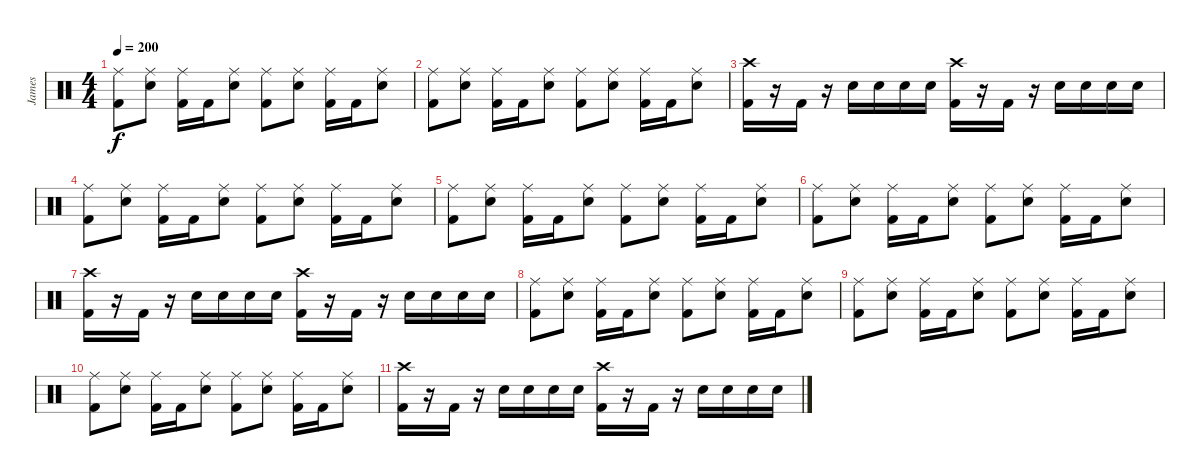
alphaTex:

\track ("James" "James") {instrument percussion}
\staff {score}
\articulation defaults
\ts (4 4)
\tempo 200
\clef neutral
\ks c
("Kick (hit) 2" "Ride (middle)").8{dy f} ("Electric Snare (hit)" "Ride (middle)").8 ("Kick (hit) 2" "Ride (middle)").16 "Kick (hit) 2".16 ("Electric Snare (hit)" "Ride (middle)").8 ("Kick (hit) 2" "Ride (middle)").8 ("Electric Snare (hit)" "Ride (middle)").8 ("Kick (hit) 2" "Ride (middle)").16 "Kick (hit) 2".16 ("Electric Snare (hit)" "Ride (middle)").8 |
("Kick (hit) 2" "Ride (middle)").8 ("Electric Snare (hit)" "Ride (middle)").8 ("Kick (hit) 2" "Ride (middle)").16 "Kick (hit) 2".16 ("Electric Snare (hit)" "Ride (middle)").8 ("Kick (hit) 2" "Ride (middle)").8 ("Electric Snare (hit)" "Ride (middle)").8 ("Kick (hit) 2" "Ride (middle)").16 "Kick (hit) 2".16 ("Electric Snare (hit)" "Ride (middle)").8 |
("Kick (hit) 2" "Crash high (hit)").16 r.16 "Kick (hit) 2".16 r.16 "Electric Snare (hit)".16 "Electric Snare (hit)".16 "Electric Snare (hit)".16 "Electric Snare (hit)".16 ("Kick (hit) 2" "Crash high (hit)").16 r.16 "Kick (hit) 2".16 r.16 "Electric Snare (hit)".16 "Electric Snare (hit)".16 "Electric Snare (hit)".16 "Electric Snare (hit)".16 |
("Kick (hit) 2" "Ride (middle)").8 ("Electric Snare (hit)" "Ride (middle)").8 ("Kick (hit) 2" "Ride (middle)").16 "Kick (hit) 2".16 ("Electric Snare (hit)" "Ride (middle)").8 ("Kick (hit) 2" "Ride (middle)").8 ("Electric Snare (hit)" "Ride (middle)").8 ("Kick (hit) 2" "Ride (middle)").16 "Kick (hit) 2".16 ("Electric Snare (hit)" "Ride (middle)").8 |
("Kick (hit) 2" "Ride (middle)").8 ("Electric Snare (hit)" "Ride (middle)").8 ("Kick (hit) 2" "Ride (middle)").16 "Kick (hit) 2".16 ("Electric Snare (hit)" "Ride (middle)").8 ("Kick (hit) 2" "Ride (middle)").8 ("Electric Snare (hit)" "Ride (middle)").8 ("Kick (hit) 2" "Ride (middle)").16 "Kick (hit) 2".16 ("Electric Snare (hit)" "Ride (middle)").8 |
("Kick (hit) 2" "Ride (middle)").8 ("Electric Snare (hit)" "Ride (middle)").8 ("Kick (hit) 2" "Ride (middle)").16 "Kick (hit) 2".16 ("Electric Snare (hit)" "Ride (middle)").8 ("Kick (hit) 2" "Ride (middle)").8 ("Electric Snare (hit)" "Ride (middle)").8 ("Kick (hit) 2" "Ride (middle)").16 "Kick (hit) 2".16 ("Electric Snare (hit)" "Ride (middle)").8 |
("Kick (hit) 2" "Crash high (hit)").16 r.16 "Kick (hit) 2".16 r.16 "Electric Snare (hit)".16 "Electric Snare (hit)".16 "Electric Snare (hit)".16 "Electric Snare (hit)".16 ("Kick (hit) 2" "Crash high (hit)").16 r.16 "Kick (hit) 2".16 r.16 "Electric Snare (hit)".16 "Electric Snare (hit)".16 "Electric Snare (hit)".16 "Electric Snare (hit)".16 |
("Kick (hit) 2" "Ride (middle)").8 ("Electric Snare (hit)" "Ride (middle)").8 ("Kick (hit) 2" "Ride (middle)").16 "Kick (hit) 2".16 ("Electric Snare (hit)" "Ride (middle)").8 ("Kick (hit) 2" "Ride (middle)").8 ("Electric Snare (hit)" "Ride (middle)").8 ("Kick (hit) 2" "Ride (middle)").16 "Kick (hit) 2".16 ("Electric Snare (hit)" "Ride (middle)").8 |
("Kick (hit) 2" "Ride (middle)").8 ("Electric Snare (hit)" "Ride (middle)").8 ("Kick (hit) 2" "Ride (middle)").16 "Kick (hit) 2".16 ("Electric Snare (hit)" "Ride (middle)").8 ("Kick (hit) 2" "Ride (middle)").8 ("Electric Snare (hit)" "Ride (middle)").8 ("Kick (hit) 2" "Ride (middle)").16 "Kick (hit) 2".16 ("Electric Snare (hit)" "Ride (middle)").8 |
("Kick (hit) 2" "Ride (middle)").8 ("Electric Snare (hit)" "Ride (middle)").8 ("Kick (hit) 2" "Ride (middle)").16 "Kick (hit) 2".16 ("Electric Snare (hit)" "Ride (middle)").8 ("Kick (hit) 2" "Ride (middle)").8 ("Electric Snare (hit)" "Ride (middle)").8 ("Kick (hit) 2" "Ride (middle)").16 "Kick (hit) 2".16 ("Electric Snare (hit)" "Ride (middle)").8 |
("Kick (hit) 2" "Crash high (hit)").16 r.16 "Kick (hit) 2".16 r.16 "Electric Snare (hit)".16 "Electric Snare (hit)".16 "Electric Snare (hit)".16 "Electric Snare (hit)".16 ("Kick (hit) 2" "Crash high (hit)").16 r.16 "Kick (hit) 2".16 r.16 "Electric Snare (hit)".16 "Electric Snare (hit)".16 "Electric Snare (hit)".16 "Electric Snare (hit)".16
